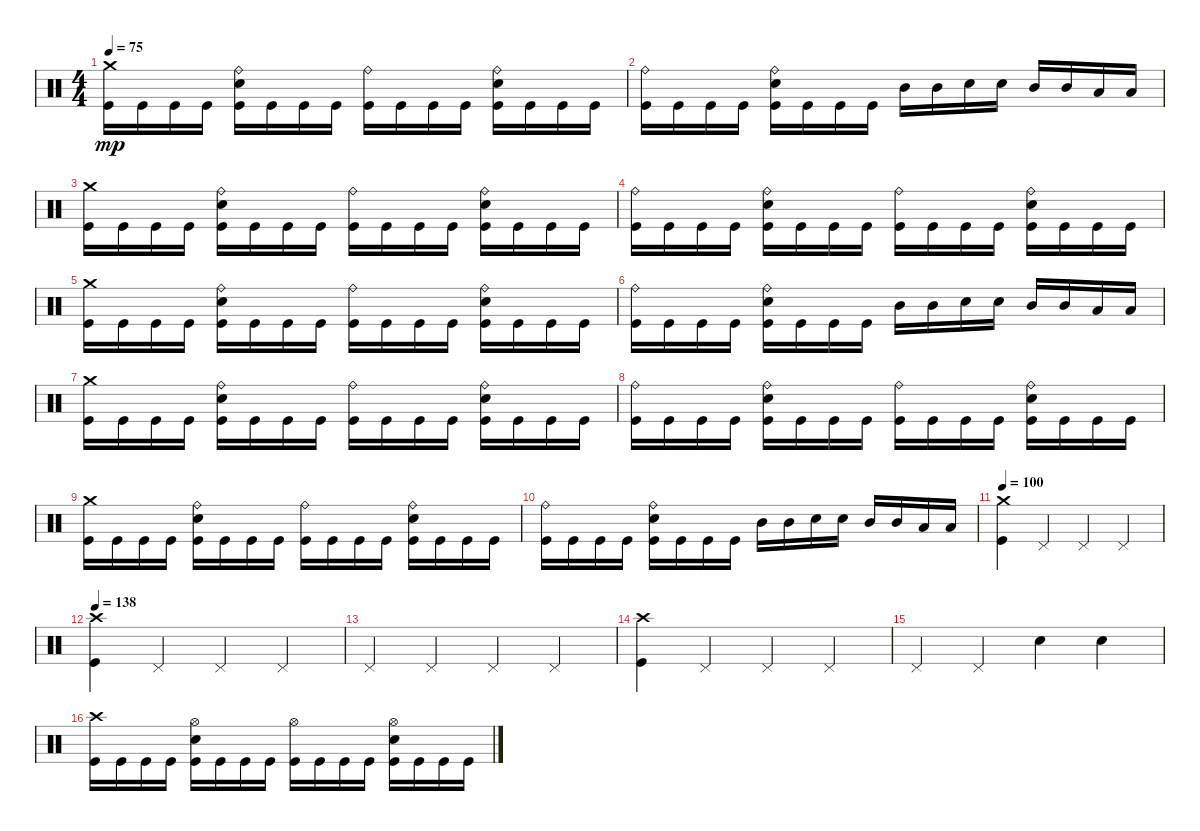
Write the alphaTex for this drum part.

\track "" {instrument percussion}
\staff {score}
\articulation defaults
\ts (4 4)
\tempo 75
\clef neutral
\ks c
("Kick (hit)" "Crash medium (hit)").16{dy mp} "Kick (hit)".16 "Kick (hit)".16 "Kick (hit)".16 ("Snare (hit) 2" "Ride (bell)" "Kick (hit)").16 "Kick (hit)".16 "Kick (hit)".16 "Kick (hit)".16 ("Kick (hit)" "Ride (bell)").16 "Kick (hit)".16 "Kick (hit)".16 "Kick (hit)".16 ("Snare (hit) 2" "Ride (bell)" "Kick (hit)").16 "Kick (hit)".16 "Kick (hit)".16 "Kick (hit)".16 |
("Kick (hit)" "Ride (bell)").16 "Kick (hit)".16 "Kick (hit)".16 "Kick (hit)".16 ("Snare (hit) 2" "Ride (bell)" "Kick (hit)").16 "Kick (hit)".16 "Kick (hit)".16 "Kick (hit)".16 "Mid Tom (hit)".16 "Mid Tom (hit)".16 "Snare (hit) 2".16 "Snare (hit) 2".16 "Mid Tom (hit)".16 "Mid Tom (hit)".16 "Low Tom (hit)".16 "Low Tom (hit)".16 |
("Kick (hit)" "Crash medium (hit)").16 "Kick (hit)".16 "Kick (hit)".16 "Kick (hit)".16 ("Snare (hit) 2" "Ride (bell)" "Kick (hit)").16 "Kick (hit)".16 "Kick (hit)".16 "Kick (hit)".16 ("Kick (hit)" "Ride (bell)").16 "Kick (hit)".16 "Kick (hit)".16 "Kick (hit)".16 ("Snare (hit) 2" "Ride (bell)" "Kick (hit)").16 "Kick (hit)".16 "Kick (hit)".16 "Kick (hit)".16 |
("Kick (hit)" "Ride (bell)").16 "Kick (hit)".16 "Kick (hit)".16 "Kick (hit)".16 ("Snare (hit) 2" "Ride (bell)" "Kick (hit)").16 "Kick (hit)".16 "Kick (hit)".16 "Kick (hit)".16 ("Ride (bell)" "Kick (hit)").16 "Kick (hit)".16 "Kick (hit)".16 "Kick (hit)".16 ("Snare (hit) 2" "Ride (bell)" "Kick (hit)").16 "Kick (hit)".16 "Kick (hit)".16 "Kick (hit)".16 |
("Kick (hit)" "Crash medium (hit)").16 "Kick (hit)".16 "Kick (hit)".16 "Kick (hit)".16 ("Snare (hit) 2" "Ride (bell)" "Kick (hit)").16 "Kick (hit)".16 "Kick (hit)".16 "Kick (hit)".16 ("Kick (hit)" "Ride (bell)").16 "Kick (hit)".16 "Kick (hit)".16 "Kick (hit)".16 ("Snare (hit) 2" "Ride (bell)" "Kick (hit)").16 "Kick (hit)".16 "Kick (hit)".16 "Kick (hit)".16 |
("Kick (hit)" "Ride (bell)").16 "Kick (hit)".16 "Kick (hit)".16 "Kick (hit)".16 ("Snare (hit) 2" "Ride (bell)" "Kick (hit)").16 "Kick (hit)".16 "Kick (hit)".16 "Kick (hit)".16 "Mid Tom (hit)".16 "Mid Tom (hit)".16 "Snare (hit) 2".16 "Snare (hit) 2".16 "Mid Tom (hit)".16 "Mid Tom (hit)".16 "Low Tom (hit)".16 "Low Tom (hit)".16 |
("Kick (hit)" "Crash medium (hit)").16 "Kick (hit)".16 "Kick (hit)".16 "Kick (hit)".16 ("Snare (hit) 2" "Ride (bell)" "Kick (hit)").16 "Kick (hit)".16 "Kick (hit)".16 "Kick (hit)".16 ("Kick (hit)" "Ride (bell)").16 "Kick (hit)".16 "Kick (hit)".16 "Kick (hit)".16 ("Snare (hit) 2" "Ride (bell)" "Kick (hit)").16 "Kick (hit)".16 "Kick (hit)".16 "Kick (hit)".16 |
("Kick (hit)" "Ride (bell)").16 "Kick (hit)".16 "Kick (hit)".16 "Kick (hit)".16 ("Snare (hit) 2" "Ride (bell)" "Kick (hit)").16 "Kick (hit)".16 "Kick (hit)".16 "Kick (hit)".16 ("Ride (bell)" "Kick (hit)").16 "Kick (hit)".16 "Kick (hit)".16 "Kick (hit)".16 ("Snare (hit) 2" "Ride (bell)" "Kick (hit)").16 "Kick (hit)".16 "Kick (hit)".16 "Kick (hit)".16 |
("Kick (hit)" "Crash medium (hit)").16 "Kick (hit)".16 "Kick (hit)".16 "Kick (hit)".16 ("Snare (hit) 2" "Ride (bell)" "Kick (hit)").16 "Kick (hit)".16 "Kick (hit)".16 "Kick (hit)".16 ("Kick (hit)" "Ride (bell)").16 "Kick (hit)".16 "Kick (hit)".16 "Kick (hit)".16 ("Snare (hit) 2" "Ride (bell)" "Kick (hit)").16 "Kick (hit)".16 "Kick (hit)".16 "Kick (hit)".16 |
("Kick (hit)" "Ride (bell)").16 "Kick (hit)".16 "Kick (hit)".16 "Kick (hit)".16 ("Snare (hit) 2" "Ride (bell)" "Kick (hit)").16 "Kick (hit)".16 "Kick (hit)".16 "Kick (hit)".16 "Mid Tom (hit)".16 "Mid Tom (hit)".16 "Snare (hit) 2".16 "Snare (hit) 2".16 "Mid Tom (hit)".16 "Mid Tom (hit)".16 "Low Tom (hit)".16 "Low Tom (hit)".16 |
\tempo 100
("Kick (hit)" "Crash medium (hit)").4 "Pedal Hi-Hat (hit)".4 "Pedal Hi-Hat (hit)".4 "Pedal Hi-Hat (hit)".4 |
\tempo 138
("Kick (hit)" "Crash high (hit)").4 "Pedal Hi-Hat (hit)".4 "Pedal Hi-Hat (hit)".4 "Pedal Hi-Hat (hit)".4 |
"Pedal Hi-Hat (hit)".4 "Pedal Hi-Hat (hit)".4 "Pedal Hi-Hat (hit)".4 "Pedal Hi-Hat (hit)".4 |
("Crash high (hit)" "Kick (hit)").4 "Pedal Hi-Hat (hit)".4 "Pedal Hi-Hat (hit)".4 "Pedal Hi-Hat (hit)".4 |
"Pedal Hi-Hat (hit)".4 "Pedal Hi-Hat (hit)".4 "Snare (hit) 2".4 "Snare (hit) 2".4 |
("Kick (hit)" "Crash high (hit)").16 "Kick (hit)".16 "Kick (hit)".16 "Kick (hit)".16 ("Kick (hit)" "Hi-Hat (open)" "Snare (hit) 2").16 "Kick (hit)".16 "Kick (hit)".16 "Kick (hit)".16 ("Kick (hit)" "Hi-Hat (open)").16 "Kick (hit)".16 "Kick (hit)".16 "Kick (hit)".16 ("Kick (hit)" "Snare (hit) 2" "Hi-Hat (open)").16 "Kick (hit)".16 "Kick (hit)".16 "Kick (hit)".16
